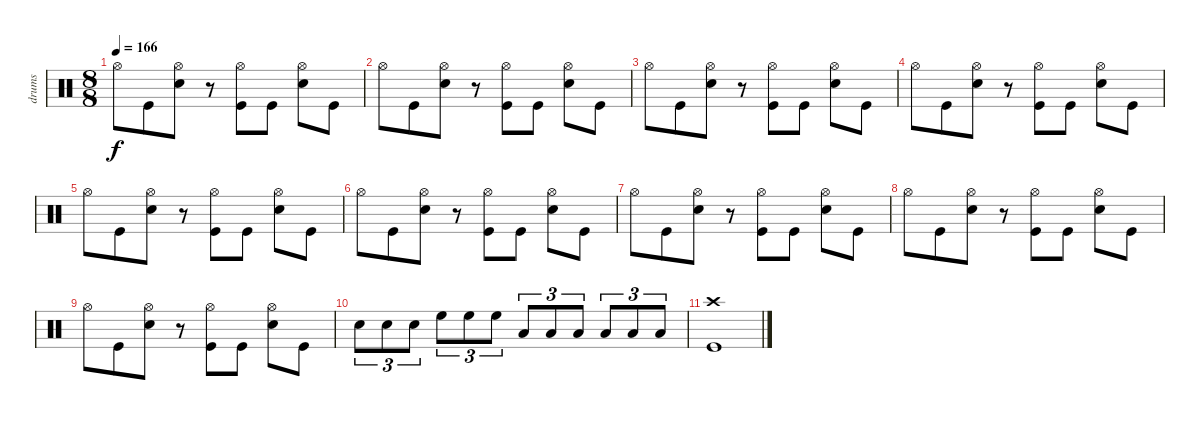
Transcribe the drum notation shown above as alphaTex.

\track ("drums" "drums") {instrument percussion}
\staff {score}
\articulation defaults
\ts (8 8)
\tempo 166
\clef neutral
\ks c "Hi-Hat (open)".8{dy f} "Kick (hit)".8
("Hi-Hat (open)" "Snare (hit) 2").8 r.8 ("Hi-Hat (open)" "Kick (hit)").8 "Kick (hit)".8 ("Hi-Hat (open)" "Snare (hit) 2").8 "Kick (hit)".8 |
"Hi-Hat (open)".8 "Kick (hit)".8 ("Hi-Hat (open)" "Snare (hit) 2").8 r.8 ("Hi-Hat (open)" "Kick (hit)").8 "Kick (hit)".8 ("Hi-Hat (open)" "Snare (hit) 2").8 "Kick (hit)".8 |
"Hi-Hat (open)".8 "Kick (hit)".8 ("Hi-Hat (open)" "Snare (hit) 2").8 r.8 ("Hi-Hat (open)" "Kick (hit)").8 "Kick (hit)".8 ("Hi-Hat (open)" "Snare (hit) 2").8 "Kick (hit)".8 |
"Hi-Hat (open)".8 "Kick (hit)".8 ("Hi-Hat (open)" "Snare (hit) 2").8 r.8 ("Hi-Hat (open)" "Kick (hit)").8 "Kick (hit)".8 ("Hi-Hat (open)" "Snare (hit) 2").8 "Kick (hit)".8 |
"Hi-Hat (open)".8 "Kick (hit)".8 ("Hi-Hat (open)" "Snare (hit) 2").8 r.8 ("Hi-Hat (open)" "Kick (hit)").8 "Kick (hit)".8 ("Hi-Hat (open)" "Snare (hit) 2").8 "Kick (hit)".8 |
"Hi-Hat (open)".8 "Kick (hit)".8 ("Hi-Hat (open)" "Snare (hit) 2").8 r.8 ("Hi-Hat (open)" "Kick (hit)").8 "Kick (hit)".8 ("Hi-Hat (open)" "Snare (hit) 2").8 "Kick (hit)".8 |
"Hi-Hat (open)".8 "Kick (hit)".8 ("Hi-Hat (open)" "Snare (hit) 2").8 r.8 ("Hi-Hat (open)" "Kick (hit)").8 "Kick (hit)".8 ("Hi-Hat (open)" "Snare (hit) 2").8 "Kick (hit)".8 |
"Hi-Hat (open)".8 "Kick (hit)".8 ("Hi-Hat (open)" "Snare (hit) 2").8 r.8 ("Hi-Hat (open)" "Kick (hit)").8 "Kick (hit)".8 ("Hi-Hat (open)" "Snare (hit) 2").8 "Kick (hit)".8 |
"Hi-Hat (open)".8 "Kick (hit)".8 ("Hi-Hat (open)" "Snare (hit) 2").8 r.8 ("Hi-Hat (open)" "Kick (hit)").8 "Kick (hit)".8 ("Hi-Hat (open)" "Snare (hit) 2").8 "Kick (hit)".8 |
"Snare (hit) 2".8{tu (3 2)} "Snare (hit) 2".8{tu (3 2)} "Snare (hit) 2".8{tu (3 2)} "High Floor Tom (hit)".8{tu (3 2)} "High Floor Tom (hit)".8{tu (3 2)} "High Floor Tom (hit)".8{tu (3 2)} "Low Tom (hit)".8{tu (3 2)} "Low Tom (hit)".8{tu (3 2)} "Low Tom (hit)".8{tu (3 2)} "Low Floor Tom (hit)".8{tu (3 2)} "Low Floor Tom (hit)".8{tu (3 2)} "Low Floor Tom (hit)".8{tu (3 2)} |
("Crash high (hit)" "Kick (hit)").1
